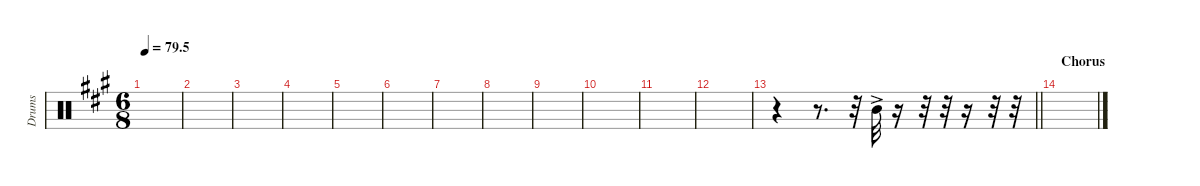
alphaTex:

\defaultSystemsLayout 4
\hideDynamics
\bracketExtendMode nobrackets
\otherSystemsTrackNameOrientation horizontal
\track ("Tom 02" "Drums") {instrument percussion}
\staff {score}
\articulation defaults
\ts (6 8)
\tempo
79.5
\accidentals auto
\clef neutral
\ottava regular
\simile none
\scale
0.333333
\ks a
|
\scale
0.333333 |
\scale
0.333333 |
\scale
0.333333 |
\scale
0.333333 |
\scale
0.333333 |
\scale
0.333333 |
\scale
0.333333 |
\scale
0.333333 |
\scale
0.333333 |
\scale
0.333333 |
\scale
0.333333 |
\scale
0.333333
\barLineRight lightlight
r.4 r.8{d} r.32 "Mid Tom (hit)"{ac acc forcenatural}.32 r.16 r.32 r.32 r.16 r.32 r.32 |
\section ("" "Chorus")
\scale
0.333333 |
\scale
0.333333 |
\scale
0.333333
